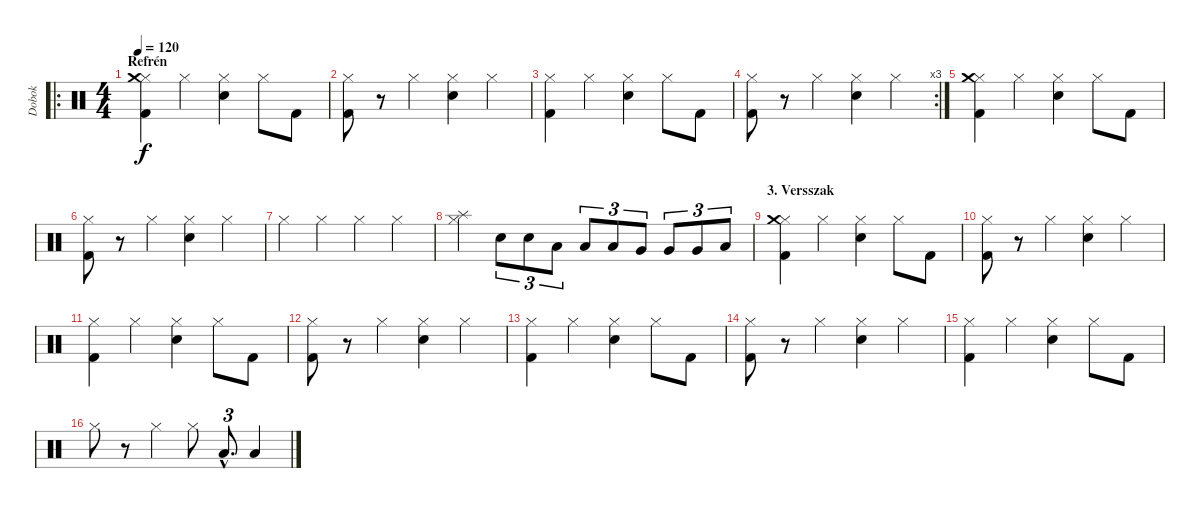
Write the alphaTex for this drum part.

\track ("Dobok" "Dobok") {instrument percussion}
\staff {score}
\articulation defaults
\ro
\ts (4 4)
\section ("" "Refrén")
\tempo 120
\clef neutral
\ks c
("Hi-Hat (closed)" "Kick (hit) 2" "Crash medium (hit)").4{dy f} "Hi-Hat (closed)".4 ("Hi-Hat (closed)" "Snare (hit) 2").4 "Hi-Hat (closed)".8 "Kick (hit) 2".8 |
("Hi-Hat (closed)" "Kick (hit) 2").8 r.8 "Hi-Hat (closed)".4 ("Hi-Hat (closed)" "Snare (hit) 2").4 "Hi-Hat (closed)".4 |
("Hi-Hat (closed)" "Kick (hit) 2").4 "Hi-Hat (closed)".4 ("Hi-Hat (closed)" "Snare (hit) 2").4 "Hi-Hat (closed)".8 "Kick (hit) 2".8 |
\rc 3
("Hi-Hat (closed)" "Kick (hit) 2").8 r.8 "Hi-Hat (closed)".4 ("Hi-Hat (closed)" "Snare (hit) 2").4 "Hi-Hat (closed)".4 |
("Hi-Hat (closed)" "Kick (hit) 2" "Crash medium (hit)").4 "Hi-Hat (closed)".4 ("Hi-Hat (closed)" "Snare (hit) 2").4 "Hi-Hat (closed)".8 "Kick (hit) 2".8 |
("Hi-Hat (closed)" "Kick (hit) 2").8 r.8 "Hi-Hat (closed)".4 ("Hi-Hat (closed)" "Snare (hit) 2").4 "Hi-Hat (closed)".4 |
"Hi-Hat (closed)".4 "Hi-Hat (closed)".4 "Hi-Hat (closed)".4 "Hi-Hat (closed)".4 |
("Hi-Hat (closed)" "Splash (hit)").4 "Snare (hit) 2".8{tu (3 2)} "Snare (hit) 2".8{tu (3 2)} "Low Tom (hit)".8{tu (3 2)} "Low Tom (hit)".8{tu (3 2)} "Low Tom (hit)".8{tu (3 2)} "Very Low Tom (hit)".8{tu (3 2)} "Very Low Tom (hit)".8{tu (3 2)} "Very Low Tom (hit)".8{tu (3 2)} "Low Floor Tom (hit)".8{tu (3 2)} |
\section ("" "3. Versszak")
("Hi-Hat (closed)" "Kick (hit) 2" "Crash medium (hit)").4 "Hi-Hat (closed)".4 ("Hi-Hat (closed)" "Snare (hit) 2").4 "Hi-Hat (closed)".8 "Kick (hit) 2".8 |
("Hi-Hat (closed)" "Kick (hit) 2").8 r.8 "Hi-Hat (closed)".4 ("Hi-Hat (closed)" "Snare (hit) 2").4 "Hi-Hat (closed)".4 |
("Hi-Hat (closed)" "Kick (hit) 2").4 "Hi-Hat (closed)".4 ("Hi-Hat (closed)" "Snare (hit) 2").4 "Hi-Hat (closed)".8 "Kick (hit) 2".8 |
("Hi-Hat (closed)" "Kick (hit) 2").8 r.8 "Hi-Hat (closed)".4 ("Hi-Hat (closed)" "Snare (hit) 2").4 "Hi-Hat (closed)".4 |
("Hi-Hat (closed)" "Kick (hit) 2").4 "Hi-Hat (closed)".4 ("Hi-Hat (closed)" "Snare (hit) 2").4 "Hi-Hat (closed)".8 "Kick (hit) 2".8 |
("Hi-Hat (closed)" "Kick (hit) 2").8 r.8 "Hi-Hat (closed)".4 ("Hi-Hat (closed)" "Snare (hit) 2").4 "Hi-Hat (closed)".4 |
("Hi-Hat (closed)" "Kick (hit) 2").4 "Hi-Hat (closed)".4 ("Hi-Hat (closed)" "Snare (hit) 2").4 "Hi-Hat (closed)".8 "Kick (hit) 2".8 |
"Hi-Hat (closed)".8 r.8 "Hi-Hat (closed)".4 "Hi-Hat (closed)".8 "Low Floor Tom (hit)"{hac}.8{d tu (3 2)} "Low Floor Tom (hit)".4
